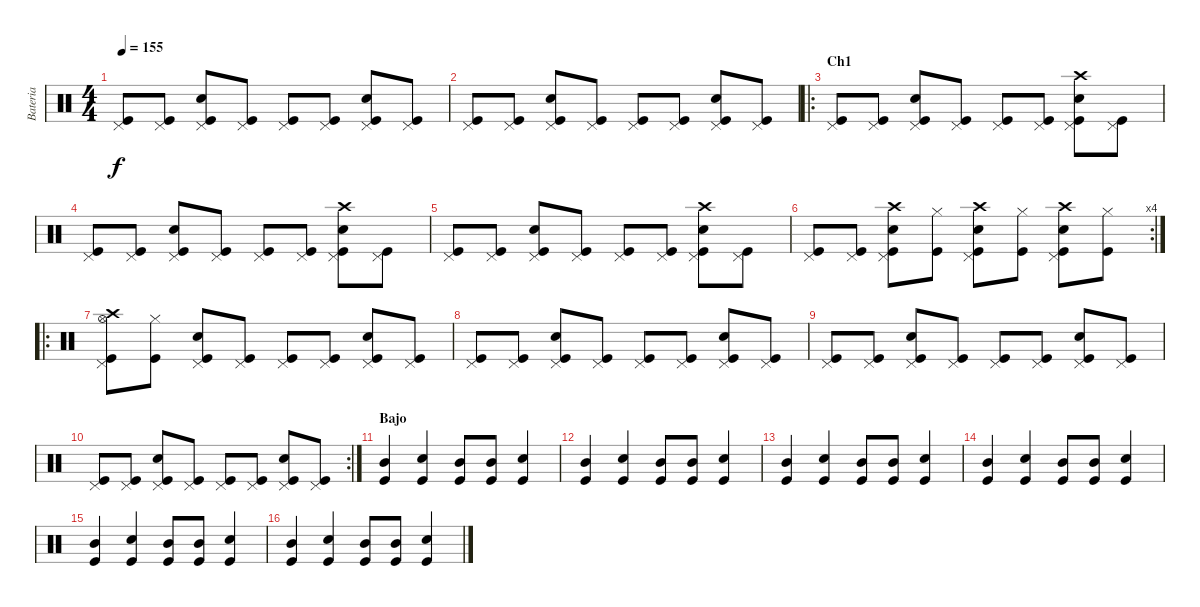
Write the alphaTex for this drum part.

\track ("Bateria" "Bateria") {instrument percussion}
\staff {score}
\articulation defaults
\ts (4 4)
\tempo 155
\clef neutral
\ks c
("Pedal Hi-Hat (hit)" "Kick (hit)").8{dy f} ("Pedal Hi-Hat (hit)" "Kick (hit)").8 ("Pedal Hi-Hat (hit)" "Electric Snare (hit)" "Kick (hit)").8 ("Pedal Hi-Hat (hit)" "Kick (hit)").8 ("Pedal Hi-Hat (hit)" "Kick (hit)").8 ("Pedal Hi-Hat (hit)" "Kick (hit)").8 ("Pedal Hi-Hat (hit)" "Electric Snare (hit)" "Kick (hit)").8 ("Pedal Hi-Hat (hit)" "Kick (hit)").8 |
("Pedal Hi-Hat (hit)" "Kick (hit)").8 ("Pedal Hi-Hat (hit)" "Kick (hit)").8 ("Pedal Hi-Hat (hit)" "Electric Snare (hit)" "Kick (hit)").8 ("Pedal Hi-Hat (hit)" "Kick (hit)").8 ("Pedal Hi-Hat (hit)" "Kick (hit)").8 ("Pedal Hi-Hat (hit)" "Kick (hit)").8 ("Pedal Hi-Hat (hit)" "Electric Snare (hit)" "Kick (hit)").8 ("Pedal Hi-Hat (hit)" "Kick (hit)").8 |
\ro
\section ("" "Ch1")
("Pedal Hi-Hat (hit)" "Kick (hit)").8 ("Pedal Hi-Hat (hit)" "Kick (hit)").8 ("Pedal Hi-Hat (hit)" "Electric Snare (hit)" "Kick (hit)").8 ("Pedal Hi-Hat (hit)" "Kick (hit)").8 ("Pedal Hi-Hat (hit)" "Kick (hit)").8 ("Pedal Hi-Hat (hit)" "Kick (hit)").8 ("Pedal Hi-Hat (hit)" "Crash high (hit)" "Electric Snare (hit)" "Kick (hit)").8 ("Pedal Hi-Hat (hit)" "Kick (hit)").8 |
("Pedal Hi-Hat (hit)" "Kick (hit)").8 ("Pedal Hi-Hat (hit)" "Kick (hit)").8 ("Pedal Hi-Hat (hit)" "Electric Snare (hit)" "Kick (hit)").8 ("Pedal Hi-Hat (hit)" "Kick (hit)").8 ("Pedal Hi-Hat (hit)" "Kick (hit)").8 ("Pedal Hi-Hat (hit)" "Kick (hit)").8 ("Pedal Hi-Hat (hit)" "Crash high (hit)" "Electric Snare (hit)" "Kick (hit)").8 ("Pedal Hi-Hat (hit)" "Kick (hit)").8 |
("Pedal Hi-Hat (hit)" "Kick (hit)").8 ("Pedal Hi-Hat (hit)" "Kick (hit)").8 ("Pedal Hi-Hat (hit)" "Electric Snare (hit)" "Kick (hit)").8 ("Pedal Hi-Hat (hit)" "Kick (hit)").8 ("Pedal Hi-Hat (hit)" "Kick (hit)").8 ("Pedal Hi-Hat (hit)" "Kick (hit)").8 ("Pedal Hi-Hat (hit)" "Crash high (hit)" "Electric Snare (hit)" "Kick (hit)").8 ("Pedal Hi-Hat (hit)" "Kick (hit)").8 |
\rc 4
("Pedal Hi-Hat (hit)" "Kick (hit)").8 ("Pedal Hi-Hat (hit)" "Kick (hit)").8 ("Pedal Hi-Hat (hit)" "Electric Snare (hit)" "Crash high (hit)" "Kick (hit)").8 ("Hi-Hat (closed)" "Kick (hit)").8 ("Pedal Hi-Hat (hit)" "Electric Snare (hit)" "Crash high (hit)" "Kick (hit)").8 ("Hi-Hat (closed)" "Kick (hit)").8 ("Pedal Hi-Hat (hit)" "Electric Snare (hit)" "Crash high (hit)" "Kick (hit)").8 ("Hi-Hat (closed)" "Kick (hit)").8 |
\ro
("Pedal Hi-Hat (hit)" "Crash high (hit)" "Hi-Hat (open)" "Kick (hit)").8 ("Hi-Hat (closed)" "Kick (hit)").8 ("Pedal Hi-Hat (hit)" "Electric Snare (hit)" "Kick (hit)").8 ("Pedal Hi-Hat (hit)" "Kick (hit)").8 ("Pedal Hi-Hat (hit)" "Kick (hit)").8 ("Pedal Hi-Hat (hit)" "Kick (hit)").8 ("Pedal Hi-Hat (hit)" "Electric Snare (hit)" "Kick (hit)").8 ("Pedal Hi-Hat (hit)" "Kick (hit)").8 |
("Pedal Hi-Hat (hit)" "Kick (hit)").8 ("Pedal Hi-Hat (hit)" "Kick (hit)").8 ("Pedal Hi-Hat (hit)" "Electric Snare (hit)" "Kick (hit)").8 ("Pedal Hi-Hat (hit)" "Kick (hit)").8 ("Pedal Hi-Hat (hit)" "Kick (hit)").8 ("Pedal Hi-Hat (hit)" "Kick (hit)").8 ("Pedal Hi-Hat (hit)" "Electric Snare (hit)" "Kick (hit)").8 ("Pedal Hi-Hat (hit)" "Kick (hit)").8 |
("Pedal Hi-Hat (hit)" "Kick (hit)").8 ("Pedal Hi-Hat (hit)" "Kick (hit)").8 ("Pedal Hi-Hat (hit)" "Electric Snare (hit)" "Kick (hit)").8 ("Pedal Hi-Hat (hit)" "Kick (hit)").8 ("Pedal Hi-Hat (hit)" "Kick (hit)").8 ("Pedal Hi-Hat (hit)" "Kick (hit)").8 ("Pedal Hi-Hat (hit)" "Electric Snare (hit)" "Kick (hit)").8 ("Pedal Hi-Hat (hit)" "Kick (hit)").8 |
\rc 2
("Pedal Hi-Hat (hit)" "Kick (hit)").8 ("Pedal Hi-Hat (hit)" "Kick (hit)").8 ("Pedal Hi-Hat (hit)" "Electric Snare (hit)" "Kick (hit)").8 ("Pedal Hi-Hat (hit)" "Kick (hit)").8 ("Pedal Hi-Hat (hit)" "Kick (hit)").8 ("Pedal Hi-Hat (hit)" "Kick (hit)").8 ("Pedal Hi-Hat (hit)" "Electric Snare (hit)" "Kick (hit)").8 ("Pedal Hi-Hat (hit)" "Kick (hit)").8 |
\section ("" "Bajo")
("Mid Tom (hit)" "Kick (hit)").4 ("Electric Snare (hit)" "Kick (hit)").4 ("Mid Tom (hit)" "Kick (hit)").8 ("Mid Tom (hit)" "Kick (hit)").8 ("Electric Snare (hit)" "Kick (hit)").4 |
("Mid Tom (hit)" "Kick (hit)").4 ("Electric Snare (hit)" "Kick (hit)").4 ("Mid Tom (hit)" "Kick (hit)").8 ("Mid Tom (hit)" "Kick (hit)").8 ("Electric Snare (hit)" "Kick (hit)").4 |
("Mid Tom (hit)" "Kick (hit)").4 ("Electric Snare (hit)" "Kick (hit)").4 ("Mid Tom (hit)" "Kick (hit)").8 ("Mid Tom (hit)" "Kick (hit)").8 ("Electric Snare (hit)" "Kick (hit)").4 |
("Mid Tom (hit)" "Kick (hit)").4 ("Electric Snare (hit)" "Kick (hit)").4 ("Mid Tom (hit)" "Kick (hit)").8 ("Mid Tom (hit)" "Kick (hit)").8 ("Electric Snare (hit)" "Kick (hit)").4 |
("Mid Tom (hit)" "Kick (hit)").4 ("Electric Snare (hit)" "Kick (hit)").4 ("Mid Tom (hit)" "Kick (hit)").8 ("Mid Tom (hit)" "Kick (hit)").8 ("Electric Snare (hit)" "Kick (hit)").4 |
("Mid Tom (hit)" "Kick (hit)").4 ("Electric Snare (hit)" "Kick (hit)").4 ("Mid Tom (hit)" "Kick (hit)").8 ("Mid Tom (hit)" "Kick (hit)").8 ("Electric Snare (hit)" "Kick (hit)").4
